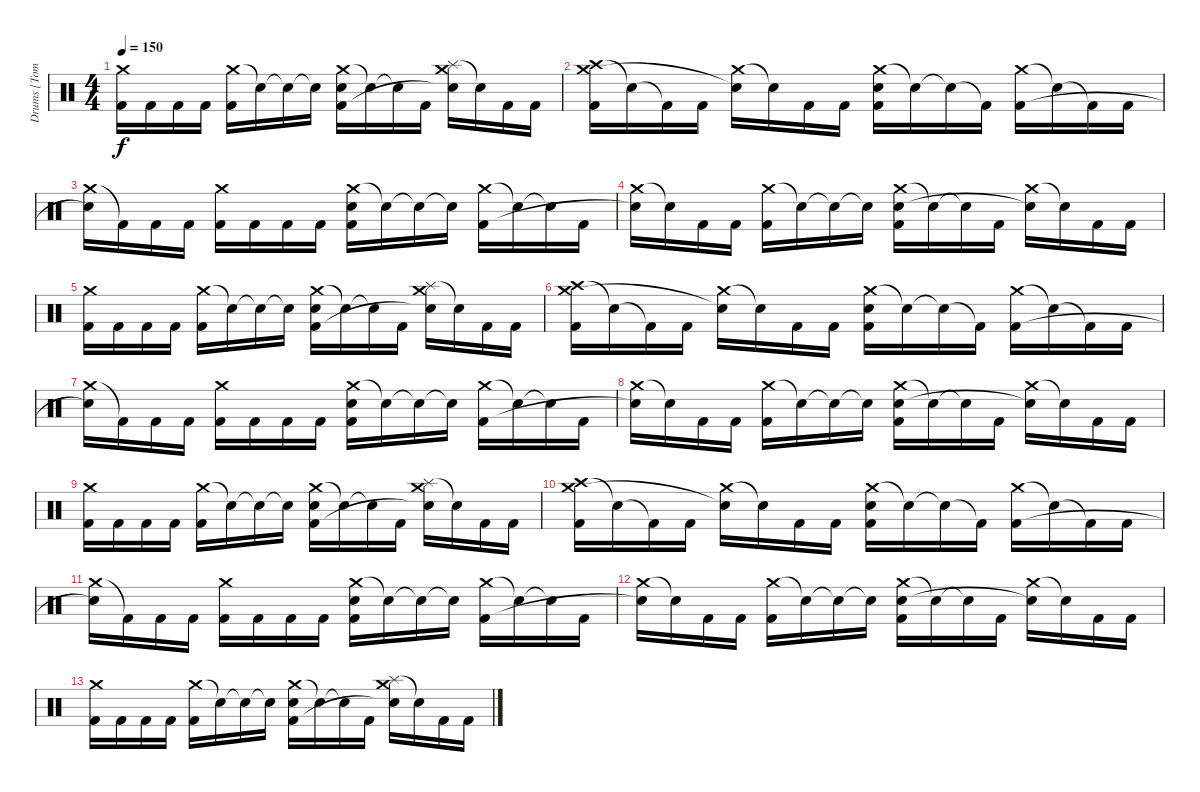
\track ("Drums [Tomas Haake]" "Drums [Tom") {instrument percussion}
\staff {score}
\articulation defaults
\ts (4 4)
\tempo 150
\clef neutral
\ks c
("Crash medium (hit)" "Kick (hit) 2").16{dy f} "Kick (hit) 2".16 "Kick (hit) 2".16 "Kick (hit) 2".16 ("Crash medium (hit)" "Kick (hit) 2").16 "Snare (hit)"{t}.16 "Snare (hit)"{t}.16 "Snare (hit)"{t}.16 ("Crash medium (hit)" "Electric Snare (hit)" "Kick (hit) 2").16 "Snare (hit)"{t}.16 "Snare (hit)"{t}.16 "Kick (hit) 2".16 ("Splash (hit)" "Crash medium (hit)" "Snare (hit)"{t}).16 "Snare (hit)"{t}.16 "Kick (hit) 2".16 "Kick (hit) 2".16 |
("Crash high (hit)" "Crash medium (hit)" "Kick (hit) 2").16 "Snare (hit)"{t}.16 "Kick (hit) 2"{t}.16 "Kick (hit) 2".16 ("Crash medium (hit)" "Snare (hit)"{t}).16 "Snare (hit)"{t}.16 "Kick (hit) 2".16 "Kick (hit) 2".16 ("Crash medium (hit)" "Electric Snare (hit)" "Kick (hit) 2").16 "Snare (hit)"{t}.16 "Snare (hit)"{t}.16 "Kick (hit) 2"{t}.16 ("Crash medium (hit)" "Kick (hit) 2").16 "Snare (hit)"{t}.16 "Kick (hit) 2"{t}.16 "Kick (hit) 2".16 |
("Crash medium (hit)" "Snare (hit)"{t}).16 "Kick (hit) 2"{t}.16 "Kick (hit) 2".16 "Kick (hit) 2".16 ("Crash medium (hit)" "Kick (hit) 2").16 "Kick (hit) 2".16 "Kick (hit) 2".16 "Kick (hit) 2".16 ("Crash medium (hit)" "Electric Snare (hit)" "Kick (hit) 2").16 "Snare (hit)"{t}.16 "Snare (hit)"{t}.16 "Snare (hit)"{t}.16 ("Crash medium (hit)" "Kick (hit) 2").16 "Snare (hit)"{t}.16 "Snare (hit)"{t}.16 "Kick (hit) 2".16 |
("Crash medium (hit)" "Snare (hit)"{t}).16 "Snare (hit)"{t}.16 "Kick (hit) 2".16 "Kick (hit) 2".16 ("Crash medium (hit)" "Kick (hit) 2").16 "Snare (hit)"{t}.16 "Snare (hit)"{t}.16 "Snare (hit)"{t}.16 ("Crash medium (hit)" "Electric Snare (hit)" "Kick (hit) 2").16 "Snare (hit)"{t}.16 "Snare (hit)"{t}.16 "Kick (hit) 2".16 ("Crash medium (hit)" "Snare (hit)"{t}).16 "Snare (hit)"{t}.16 "Kick (hit) 2".16 "Kick (hit) 2".16 |
("Crash medium (hit)" "Kick (hit) 2").16 "Kick (hit) 2".16 "Kick (hit) 2".16 "Kick (hit) 2".16 ("Crash medium (hit)" "Kick (hit) 2").16 "Snare (hit)"{t}.16 "Snare (hit)"{t}.16 "Snare (hit)"{t}.16 ("Crash medium (hit)" "Electric Snare (hit)" "Kick (hit) 2").16 "Snare (hit)"{t}.16 "Snare (hit)"{t}.16 "Kick (hit) 2".16 ("Splash (hit)" "Crash medium (hit)" "Snare (hit)"{t}).16 "Snare (hit)"{t}.16 "Kick (hit) 2".16 "Kick (hit) 2".16 |
("Crash high (hit)" "Crash medium (hit)" "Kick (hit) 2").16 "Snare (hit)"{t}.16 "Kick (hit) 2"{t}.16 "Kick (hit) 2".16 ("Crash medium (hit)" "Snare (hit)"{t}).16 "Snare (hit)"{t}.16 "Kick (hit) 2".16 "Kick (hit) 2".16 ("Crash medium (hit)" "Electric Snare (hit)" "Kick (hit) 2").16 "Snare (hit)"{t}.16 "Snare (hit)"{t}.16 "Kick (hit) 2"{t}.16 ("Crash medium (hit)" "Kick (hit) 2").16 "Snare (hit)"{t}.16 "Kick (hit) 2"{t}.16 "Kick (hit) 2".16 |
("Crash medium (hit)" "Snare (hit)"{t}).16 "Kick (hit) 2"{t}.16 "Kick (hit) 2".16 "Kick (hit) 2".16 ("Crash medium (hit)" "Kick (hit) 2").16 "Kick (hit) 2".16 "Kick (hit) 2".16 "Kick (hit) 2".16 ("Crash medium (hit)" "Electric Snare (hit)" "Kick (hit) 2").16 "Snare (hit)"{t}.16 "Snare (hit)"{t}.16 "Snare (hit)"{t}.16 ("Crash medium (hit)" "Kick (hit) 2").16 "Snare (hit)"{t}.16 "Snare (hit)"{t}.16 "Kick (hit) 2".16 |
("Crash medium (hit)" "Snare (hit)"{t}).16 "Snare (hit)"{t}.16 "Kick (hit) 2".16 "Kick (hit) 2".16 ("Crash medium (hit)" "Kick (hit) 2").16 "Snare (hit)"{t}.16 "Snare (hit)"{t}.16 "Snare (hit)"{t}.16 ("Crash medium (hit)" "Electric Snare (hit)" "Kick (hit) 2").16 "Snare (hit)"{t}.16 "Snare (hit)"{t}.16 "Kick (hit) 2".16 ("Crash medium (hit)" "Snare (hit)"{t}).16 "Snare (hit)"{t}.16 "Kick (hit) 2".16 "Kick (hit) 2".16 |
("Crash medium (hit)" "Kick (hit) 2").16 "Kick (hit) 2".16 "Kick (hit) 2".16 "Kick (hit) 2".16 ("Crash medium (hit)" "Kick (hit) 2").16 "Snare (hit)"{t}.16 "Snare (hit)"{t}.16 "Snare (hit)"{t}.16 ("Crash medium (hit)" "Electric Snare (hit)" "Kick (hit) 2").16 "Snare (hit)"{t}.16 "Snare (hit)"{t}.16 "Kick (hit) 2".16 ("Splash (hit)" "Crash medium (hit)" "Snare (hit)"{t}).16 "Snare (hit)"{t}.16 "Kick (hit) 2".16 "Kick (hit) 2".16 |
("Crash high (hit)" "Crash medium (hit)" "Kick (hit) 2").16 "Snare (hit)"{t}.16 "Kick (hit) 2"{t}.16 "Kick (hit) 2".16 ("Crash medium (hit)" "Snare (hit)"{t}).16 "Snare (hit)"{t}.16 "Kick (hit) 2".16 "Kick (hit) 2".16 ("Crash medium (hit)" "Electric Snare (hit)" "Kick (hit) 2").16 "Snare (hit)"{t}.16 "Snare (hit)"{t}.16 "Kick (hit) 2"{t}.16 ("Crash medium (hit)" "Kick (hit) 2").16 "Snare (hit)"{t}.16 "Kick (hit) 2"{t}.16 "Kick (hit) 2".16 |
("Crash medium (hit)" "Snare (hit)"{t}).16 "Kick (hit) 2"{t}.16 "Kick (hit) 2".16 "Kick (hit) 2".16 ("Crash medium (hit)" "Kick (hit) 2").16 "Kick (hit) 2".16 "Kick (hit) 2".16 "Kick (hit) 2".16 ("Crash medium (hit)" "Electric Snare (hit)" "Kick (hit) 2").16 "Snare (hit)"{t}.16 "Snare (hit)"{t}.16 "Snare (hit)"{t}.16 ("Crash medium (hit)" "Kick (hit) 2").16 "Snare (hit)"{t}.16 "Snare (hit)"{t}.16 "Kick (hit) 2".16 |
("Crash medium (hit)" "Snare (hit)"{t}).16 "Snare (hit)"{t}.16 "Kick (hit) 2".16 "Kick (hit) 2".16 ("Crash medium (hit)" "Kick (hit) 2").16 "Snare (hit)"{t}.16 "Snare (hit)"{t}.16 "Snare (hit)"{t}.16 ("Crash medium (hit)" "Electric Snare (hit)" "Kick (hit) 2").16 "Snare (hit)"{t}.16 "Snare (hit)"{t}.16 "Kick (hit) 2".16 ("Crash medium (hit)" "Snare (hit)"{t}).16 "Snare (hit)"{t}.16 "Kick (hit) 2".16 "Kick (hit) 2".16 |
("Crash medium (hit)" "Kick (hit) 2").16 "Kick (hit) 2".16 "Kick (hit) 2".16 "Kick (hit) 2".16 ("Crash medium (hit)" "Kick (hit) 2").16 "Snare (hit)"{t}.16 "Snare (hit)"{t}.16 "Snare (hit)"{t}.16 ("Crash medium (hit)" "Electric Snare (hit)" "Kick (hit) 2").16 "Snare (hit)"{t}.16 "Snare (hit)"{t}.16 "Kick (hit) 2".16 ("Splash (hit)" "Crash medium (hit)" "Snare (hit)"{t}).16 "Snare (hit)"{t}.16 "Kick (hit) 2".16 "Kick (hit) 2".16
